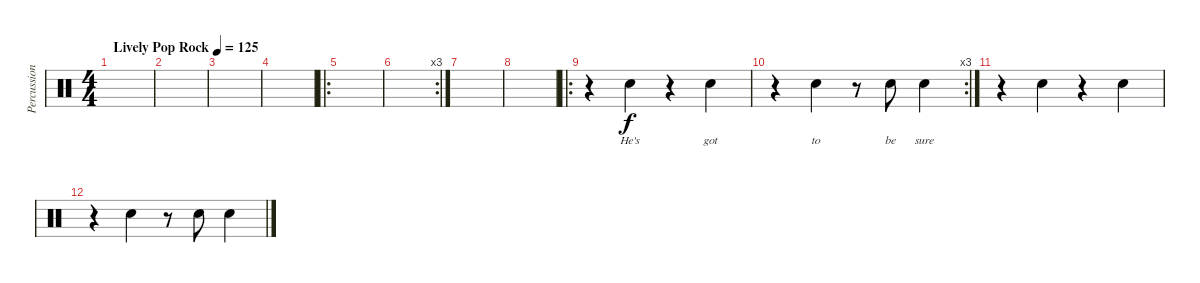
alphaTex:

\track ("Percussion" "Percussion") {instrument percussion}
\staff {score}
\articulation defaults
\ts (4 4)
\tempo (125 "Lively Pop Rock")
\clef neutral
\ks c
|
|
|
|
\ro
|
\rc 3
|
|
|
\ro
r.4 "Hand Clap (hit)".4{lyrics (0 "He's") lyrics (1 "") lyrics (2 "") lyrics (3 "") lyrics (4 "")} r.4 "Hand Clap (hit)".4{lyrics (0 "got") lyrics (1 "") lyrics (2 "") lyrics (3 "") lyrics (4 "")} |
\rc 3
r.4 "Hand Clap (hit)".4{lyrics (0 "to") lyrics (1 "") lyrics (2 "") lyrics (3 "") lyrics (4 "")} r.8 "Hand Clap (hit)".8{lyrics (0 "be") lyrics (1 "") lyrics (2 "") lyrics (3 "") lyrics (4 "")} "Hand Clap (hit)".4{lyrics (0 "sure") lyrics (1 "") lyrics (2 "") lyrics (3 "") lyrics (4 "")} |
r.4 "Hand Clap (hit)".4 r.4 "Hand Clap (hit)".4 |
r.4 "Hand Clap (hit)".4 r.8 "Hand Clap (hit)".8 "Hand Clap (hit)".4
